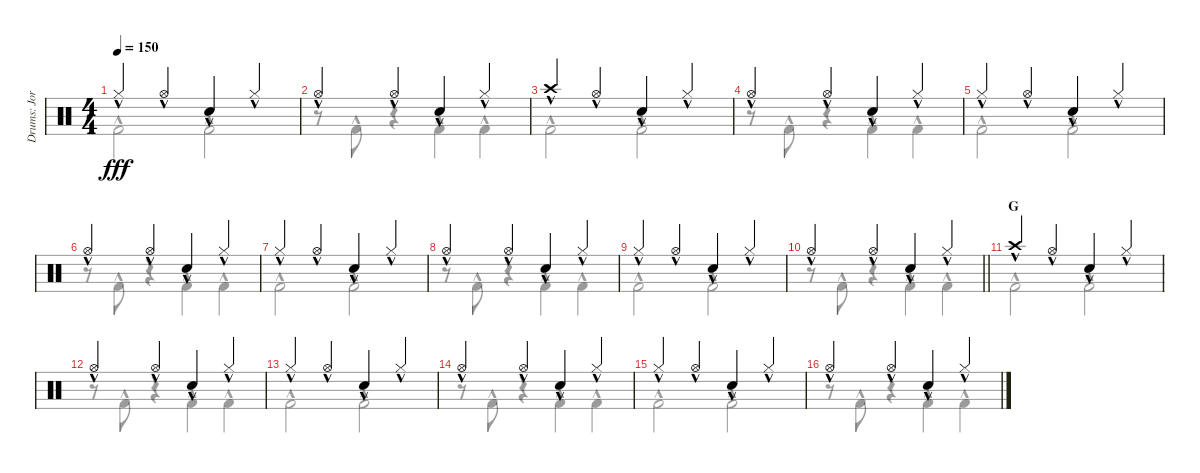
\track ("Drums: Jorg" "Drums: Jor") {instrument percussion}
\staff {score}
\articulation defaults
\voice
\ts (4 4)
\tempo 150
\clef neutral
\ks c "Hi-Hat (closed)"{hac}.4{dy fff} "Hi-Hat (open)"{hac}.4{beam merge} "Snare (hit) 2"{hac}.4 "Hi-Hat (closed)"{hac}.4
|
"Hi-Hat (open)"{hac}.4 "Hi-Hat (open)"{hac}.4{beam merge} "Snare (hit) 2"{hac}.4 "Hi-Hat (closed)"{hac}.4 |
"Crash high (hit)"{hac}.4 "Hi-Hat (open)"{hac}.4{beam merge} "Snare (hit) 2"{hac}.4 "Hi-Hat (closed)"{hac}.4 |
"Hi-Hat (open)"{hac}.4 "Hi-Hat (open)"{hac}.4{beam merge} "Snare (hit) 2"{hac}.4 "Hi-Hat (closed)"{hac}.4 |
"Hi-Hat (closed)"{hac}.4 "Hi-Hat (open)"{hac}.4{beam merge} "Snare (hit) 2"{hac}.4 "Hi-Hat (closed)"{hac}.4 |
"Hi-Hat (open)"{hac}.4 "Hi-Hat (open)"{hac}.4{beam merge} "Snare (hit) 2"{hac}.4 "Hi-Hat (closed)"{hac}.4 |
"Hi-Hat (closed)"{hac}.4 "Hi-Hat (open)"{hac}.4{beam merge} "Snare (hit) 2"{hac}.4 "Hi-Hat (closed)"{hac}.4 |
"Hi-Hat (open)"{hac}.4 "Hi-Hat (open)"{hac}.4{beam merge} "Snare (hit) 2"{hac}.4 "Hi-Hat (closed)"{hac}.4 |
"Hi-Hat (closed)"{hac}.4 "Hi-Hat (open)"{hac}.4{beam merge} "Snare (hit) 2"{hac}.4 "Hi-Hat (closed)"{hac}.4 |
\barLineRight lightlight "Hi-Hat (open)"{hac}.4 "Hi-Hat (open)"{hac}.4{beam merge} "Snare (hit) 2"{hac}.4 "Hi-Hat (closed)"{hac}.4
|
\section ("" "G")
"Crash high (hit)"{hac}.4 "Hi-Hat (open)"{hac}.4{beam merge} "Snare (hit) 2"{hac}.4 "Hi-Hat (closed)"{hac}.4 |
"Hi-Hat (open)"{hac}.4 "Hi-Hat (open)"{hac}.4{beam merge} "Snare (hit) 2"{hac}.4 "Hi-Hat (closed)"{hac}.4 |
"Hi-Hat (closed)"{hac}.4 "Hi-Hat (open)"{hac}.4{beam merge} "Snare (hit) 2"{hac}.4 "Hi-Hat (closed)"{hac}.4 |
"Hi-Hat (open)"{hac}.4 "Hi-Hat (open)"{hac}.4{beam merge} "Snare (hit) 2"{hac}.4 "Hi-Hat (closed)"{hac}.4 |
"Hi-Hat (closed)"{hac}.4 "Hi-Hat (open)"{hac}.4{beam merge} "Snare (hit) 2"{hac}.4 "Hi-Hat (closed)"{hac}.4 |
"Hi-Hat (open)"{hac}.4 "Hi-Hat (open)"{hac}.4{beam merge} "Snare (hit) 2"{hac}.4 "Hi-Hat (closed)"{hac}.4
\voice
\clef neutral
\ottava regular
\simile none
\ks c "Kick (hit) 2"{hac}.2{dy fff} "Kick (hit) 2"{hac}.2
|
r.8 "Kick (hit) 2"{hac}.8 r.4 "Kick (hit) 2"{hac}.4 "Kick (hit) 2"{hac}.4 |
"Kick (hit) 2"{hac}.2 "Kick (hit) 2"{hac}.2 |
r.8 "Kick (hit) 2"{hac}.8 r.4 "Kick (hit) 2"{hac}.4 "Kick (hit) 2"{hac}.4 |
"Kick (hit) 2"{hac}.2 "Kick (hit) 2"{hac}.2 |
r.8 "Kick (hit) 2"{hac}.8 r.4 "Kick (hit) 2"{hac}.4 "Kick (hit) 2"{hac}.4 |
"Kick (hit) 2"{hac}.2 "Kick (hit) 2"{hac}.2 |
r.8 "Kick (hit) 2"{hac}.8 r.4 "Kick (hit) 2"{hac}.4 "Kick (hit) 2"{hac}.4 |
"Kick (hit) 2"{hac}.2 "Kick (hit) 2"{hac}.2 |
\barLineRight lightlight
r.8 "Kick (hit) 2"{hac}.8 r.4 "Kick (hit) 2"{hac}.4 "Kick (hit) 2"{hac}.4 |
"Kick (hit) 2"{hac}.2 "Kick (hit) 2"{hac}.2 |
r.8 "Kick (hit) 2"{hac}.8 r.4 "Kick (hit) 2"{hac}.4 "Kick (hit) 2"{hac}.4 |
"Kick (hit) 2"{hac}.2 "Kick (hit) 2"{hac}.2 |
r.8 "Kick (hit) 2"{hac}.8 r.4 "Kick (hit) 2"{hac}.4 "Kick (hit) 2"{hac}.4 |
"Kick (hit) 2"{hac}.2 "Kick (hit) 2"{hac}.2 |
r.8 "Kick (hit) 2"{hac}.8 r.4 "Kick (hit) 2"{hac}.4 "Kick (hit) 2"{hac}.4
